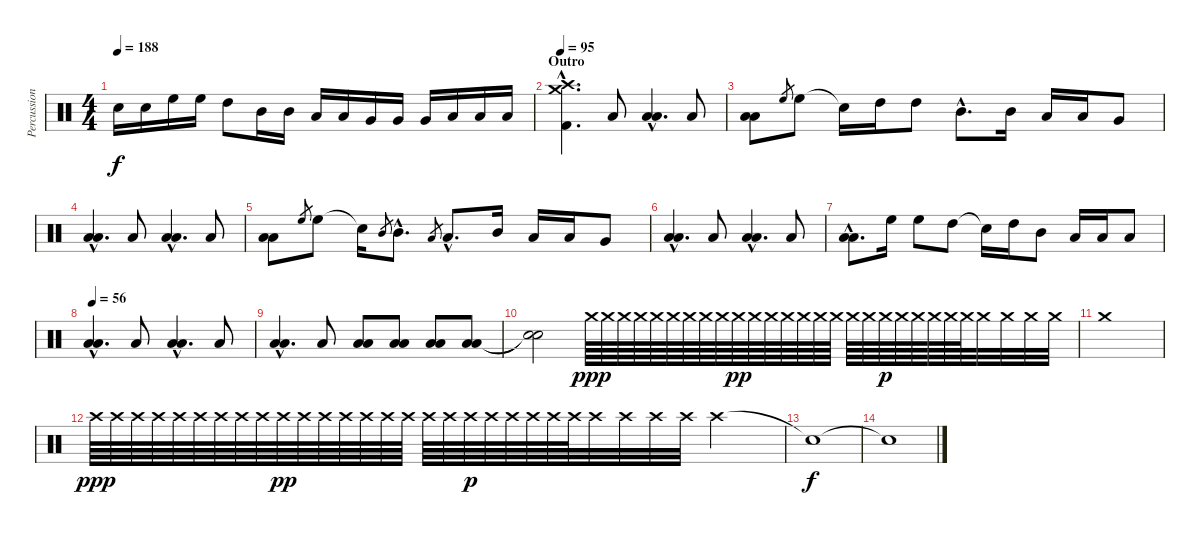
\track ("Percussions" "Percussion") {instrument percussion}
\staff {score}
\articulation defaults
\ts (4 4)
\tempo 188
\clef neutral
\ks c "Snare (hit) 2".16{dy f} "Snare (hit) 2".16 "High Floor Tom (hit)".16 "High Floor Tom (hit)".16 "High Tom (hit)".8 "Mid Tom (hit)".16 "Mid Tom (hit)".16 "Low Tom (hit)".16 "Low Tom (hit)".16 "Very Low Tom (hit)".16 "Very Low Tom (hit)".16 "Very Low Tom (hit)".16 "Low Floor Tom (hit)".16 "Low Floor Tom (hit)".16 "Low Floor Tom (hit)".16
|
\section ("" "Outro")
\tempo 95
("Crash medium (hit)"{hac} "Crash high (hit)"{hac} "Kick (hit) 2"{hac}).4{d} "Low Tom (hit)".8 ("Low Tom (hit)"{hac} "Low Tom (hit)"{hac}).4{d} "Low Tom (hit)".8 |
("Low Tom (hit)" "Low Tom (hit)").8 "High Floor Tom (hit)".8{gr} "High Floor Tom (hit)".8 "Snare (hit)"{t}.16 "High Tom (hit)".16 "High Tom (hit)".8 "Mid Tom (hit)"{hac}.8{d} "Mid Tom (hit)".16 "Low Tom (hit)".16 "Low Tom (hit)".16 "Very Low Tom (hit)".8 |
("Low Tom (hit)"{hac} "Low Tom (hit)"{hac}).4{d} "Low Tom (hit)".8 ("Low Tom (hit)"{hac} "Low Tom (hit)"{hac}).4{d} "Low Tom (hit)".8 |
("Low Tom (hit)" "Low Tom (hit)").8 "High Floor Tom (hit)".8{gr} "High Floor Tom (hit)".8 "Snare (hit)"{t}.16 "Mid Tom (hit)".8{gr} "Mid Tom (hit)"{hac}.8{d} "Low Tom (hit)".8{gr} "Low Tom (hit)"{hac}.8{d} "Mid Tom (hit)".16 "Low Tom (hit)".16 "Low Tom (hit)".16 "Very Low Tom (hit)".8 |
("Low Tom (hit)"{hac} "Low Tom (hit)"{hac}).4{d} "Low Tom (hit)".8 ("Low Tom (hit)"{hac} "Low Tom (hit)"{hac}).4{d} "Low Tom (hit)".8 |
("Low Tom (hit)"{hac} "Low Tom (hit)"{hac}).8{d} "High Floor Tom (hit)".16 "High Floor Tom (hit)".8 "High Tom (hit)".8 "Snare (hit)"{t}.16 "High Tom (hit)".16 "Mid Tom (hit)".8 "Low Tom (hit)".16 "Low Tom (hit)".16 "Low Tom (hit)".8 |
\tempo 56
("Low Tom (hit)"{hac} "Low Tom (hit)"{hac}).4{d} "Low Tom (hit)".8 ("Low Tom (hit)"{hac} "Low Tom (hit)"{hac}).4{d} "Low Tom (hit)".8 |
("Low Tom (hit)"{hac} "Low Tom (hit)"{hac}).4{d} "Low Tom (hit)".8 ("Low Tom (hit)" "Low Tom (hit)").8 ("Low Tom (hit)" "Low Tom (hit)").8 ("Low Tom (hit)" "Low Tom (hit)").8 ("Low Tom (hit)" "Low Tom (hit)").8 |
("Snare (hit)"{t} "Snare (hit)"{t}).2 "Crash medium (hit)".64{dy ppp} "Crash medium (hit)".64 "Crash medium (hit)".64 "Crash medium (hit)".64 "Crash medium (hit)".64 "Crash medium (hit)".64 "Crash medium (hit)".64 "Crash medium (hit)".64 "Crash medium (hit)".64 "Crash medium (hit)".64{dy pp} "Crash medium (hit)".64 "Crash medium (hit)".64 "Crash medium (hit)".64 "Crash medium (hit)".64 "Crash medium (hit)".64 "Crash medium (hit)".64 "Crash medium (hit)".64 "Crash medium (hit)".64 "Crash medium (hit)".64{dy p} "Crash medium (hit)".64 "Crash medium (hit)".64 "Crash medium (hit)".64 "Crash medium (hit)".64 "Crash medium (hit)".64 "Crash medium (hit)".32 "Crash medium (hit)".32 "Crash medium (hit)".32 "Crash medium (hit)".32 |
"Crash medium (hit)".1 |
"Crash high (hit)".64{dy ppp} "Crash high (hit)".64 "Crash high (hit)".64 "Crash high (hit)".64 "Crash high (hit)".64 "Crash high (hit)".64 "Crash high (hit)".64 "Crash high (hit)".64 "Crash high (hit)".64 "Crash high (hit)".64{dy pp} "Crash high (hit)".64 "Crash high (hit)".64 "Crash high (hit)".64 "Crash high (hit)".64 "Crash high (hit)".64 "Crash high (hit)".64 "Crash high (hit)".64 "Crash high (hit)".64 "Crash high (hit)".64{dy p} "Crash high (hit)".64 "Crash high (hit)".64 "Crash high (hit)".64 "Crash high (hit)".64 "Crash high (hit)".64 "Crash high (hit)".32 "Crash high (hit)".32 "Crash high (hit)".32 "Crash high (hit)".32 "Crash high (hit)".2 |
"Snare (hit)"{t}.1{dy f} |
"Snare (hit)"{t}.1
